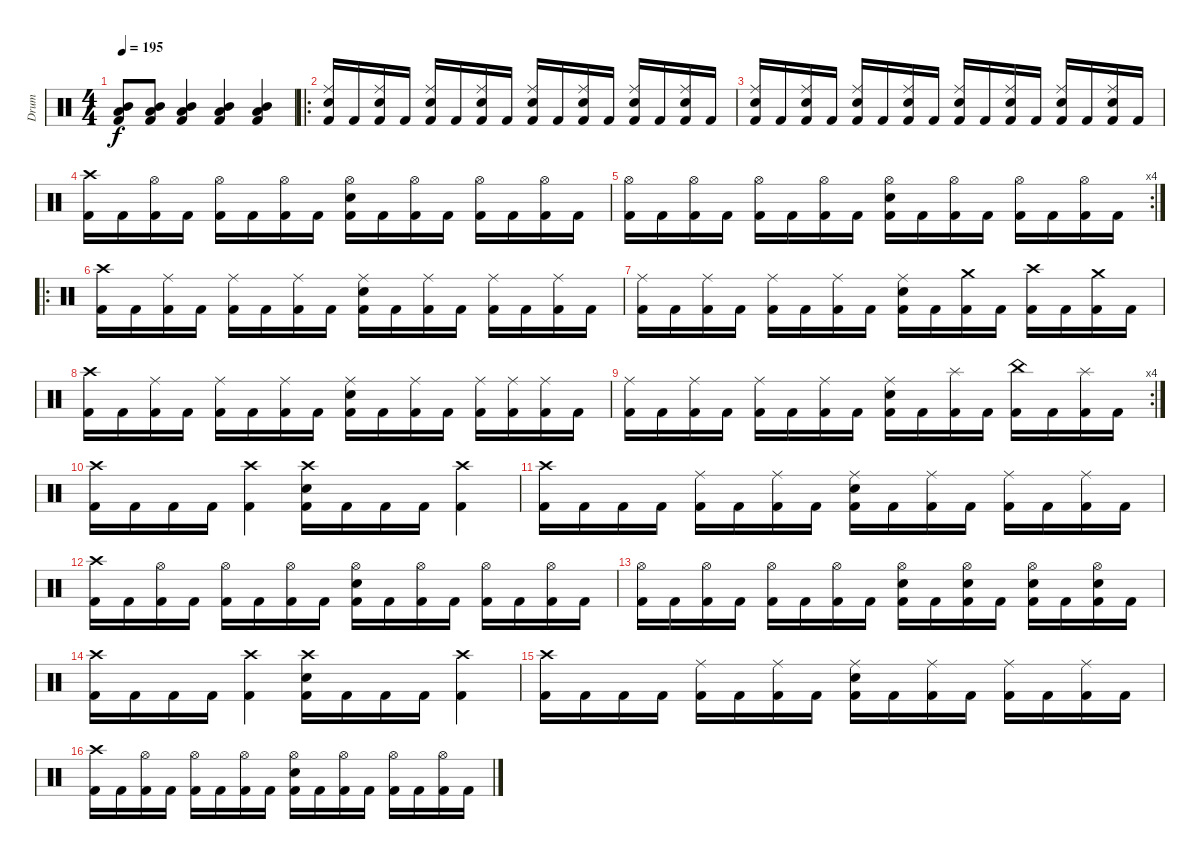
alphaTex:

\track ("Drum" "Drum") {instrument percussion}
\staff {score}
\articulation defaults
\ts (4 4)
\tempo 195
\clef neutral
\ks c
("Low Tom (hit)" "Mid Tom (hit)" "Kick (hit) 2").8{dy f} ("Low Tom (hit)" "Mid Tom (hit)" "Kick (hit) 2").8 ("Low Tom (hit)" "Mid Tom (hit)" "Kick (hit) 2").4 ("Low Tom (hit)" "Mid Tom (hit)" "Kick (hit) 2").4 ("Low Tom (hit)" "Mid Tom (hit)" "Kick (hit) 2").4 |
\ro
("Ride (middle)" "Electric Snare (hit)" "Kick (hit) 2").16 "Kick (hit) 2".16 ("Ride (middle)" "Electric Snare (hit)" "Kick (hit) 2").16 "Kick (hit) 2".16 ("Ride (middle)" "Electric Snare (hit)" "Kick (hit) 2").16 "Kick (hit) 2".16 ("Ride (middle)" "Electric Snare (hit)" "Kick (hit) 2").16 "Kick (hit) 2".16 ("Ride (middle)" "Electric Snare (hit)" "Kick (hit) 2").16 "Kick (hit) 2".16 ("Ride (middle)" "Electric Snare (hit)" "Kick (hit) 2").16 "Kick (hit) 2".16 ("Ride (middle)" "Electric Snare (hit)" "Kick (hit) 2").16 "Kick (hit) 2".16 ("Ride (middle)" "Electric Snare (hit)" "Kick (hit) 2").16 "Kick (hit) 2".16 |
("Ride (middle)" "Electric Snare (hit)" "Kick (hit) 2").16 "Kick (hit) 2".16 ("Ride (middle)" "Electric Snare (hit)" "Kick (hit) 2").16 "Kick (hit) 2".16 ("Ride (middle)" "Electric Snare (hit)" "Kick (hit) 2").16 "Kick (hit) 2".16 ("Ride (middle)" "Electric Snare (hit)" "Kick (hit) 2").16 "Kick (hit) 2".16 ("Ride (middle)" "Electric Snare (hit)" "Kick (hit) 2").16 "Kick (hit) 2".16 ("Ride (middle)" "Electric Snare (hit)" "Kick (hit) 2").16 "Kick (hit) 2".16 ("Ride (middle)" "Electric Snare (hit)" "Kick (hit) 2").16 "Kick (hit) 2".16 ("Ride (middle)" "Electric Snare (hit)" "Kick (hit) 2").16 "Kick (hit) 2".16 |
("Crash high (hit)" "Kick (hit) 2").16 "Kick (hit) 2".16 ("Hi-Hat (open)" "Kick (hit) 2").16 "Kick (hit) 2".16 ("Hi-Hat (open)" "Kick (hit) 2").16 "Kick (hit) 2".16 ("Hi-Hat (open)" "Kick (hit) 2").16 "Kick (hit) 2".16 ("Hi-Hat (open)" "Electric Snare (hit)" "Kick (hit) 2").16 "Kick (hit) 2".16 ("Hi-Hat (open)" "Kick (hit) 2").16 "Kick (hit) 2".16 ("Hi-Hat (open)" "Kick (hit) 2").16 "Kick (hit) 2".16 ("Hi-Hat (open)" "Kick (hit) 2").16 "Kick (hit) 2".16 |
\rc 4
("Hi-Hat (open)" "Kick (hit) 2").16 "Kick (hit) 2".16 ("Hi-Hat (open)" "Kick (hit) 2").16 "Kick (hit) 2".16 ("Hi-Hat (open)" "Kick (hit) 2").16 "Kick (hit) 2".16 ("Hi-Hat (open)" "Kick (hit) 2").16 "Kick (hit) 2".16 ("Hi-Hat (open)" "Electric Snare (hit)" "Kick (hit) 2").16 "Kick (hit) 2".16 ("Hi-Hat (open)" "Kick (hit) 2").16 "Kick (hit) 2".16 ("Hi-Hat (open)" "Kick (hit) 2").16 "Kick (hit) 2".16 ("Hi-Hat (open)" "Kick (hit) 2").16 "Kick (hit) 2".16 |
\ro
("Crash high (hit)" "Kick (hit) 2").16 "Kick (hit) 2".16 ("Ride (middle)" "Kick (hit) 2").16 "Kick (hit) 2".16 ("Ride (middle)" "Kick (hit) 2").16 "Kick (hit) 2".16 ("Ride (middle)" "Kick (hit) 2").16 "Kick (hit) 2".16 ("Ride (middle)" "Electric Snare (hit)" "Kick (hit) 2").16 "Kick (hit) 2".16 ("Ride (middle)" "Kick (hit) 2").16 "Kick (hit) 2".16 ("Ride (middle)" "Kick (hit) 2").16 "Kick (hit) 2".16 ("Ride (middle)" "Kick (hit) 2").16 "Kick (hit) 2".16 |
("Ride (middle)" "Kick (hit) 2").16 "Kick (hit) 2".16 ("Ride (middle)" "Kick (hit) 2").16 "Kick (hit) 2".16 ("Ride (middle)" "Kick (hit) 2").16 "Kick (hit) 2".16 ("Ride (middle)" "Kick (hit) 2").16 "Kick (hit) 2".16 ("Ride (middle)" "Electric Snare (hit)" "Kick (hit) 2").16 "Kick (hit) 2".16 ("Crash medium (hit)" "Kick (hit) 2").16 "Kick (hit) 2".16 ("Crash high (hit)" "Kick (hit) 2").16 "Kick (hit) 2".16 ("Crash medium (hit)" "Kick (hit) 2").16 "Kick (hit) 2".16 |
("Crash high (hit)" "Kick (hit) 2").16 "Kick (hit) 2".16 ("Ride (middle)" "Kick (hit) 2").16 "Kick (hit) 2".16 ("Ride (middle)" "Kick (hit) 2").16 "Kick (hit) 2".16 ("Ride (middle)" "Kick (hit) 2").16 "Kick (hit) 2".16 ("Ride (middle)" "Electric Snare (hit)" "Kick (hit) 2").16 "Kick (hit) 2".16 ("Ride (middle)" "Kick (hit) 2").16 "Kick (hit) 2".16 ("Ride (middle)" "Kick (hit) 2").16 ("Ride (middle)" "Kick (hit) 2").16 ("Ride (middle)" "Kick (hit) 2").16 "Kick (hit) 2".16 |
\rc 4
("Ride (middle)" "Kick (hit) 2").16 "Kick (hit) 2".16 ("Ride (middle)" "Kick (hit) 2").16 "Kick (hit) 2".16 ("Ride (middle)" "Kick (hit) 2").16 "Kick (hit) 2".16 ("Ride (middle)" "Kick (hit) 2").16 "Kick (hit) 2".16 ("Ride (middle)" "Electric Snare (hit)" "Kick (hit) 2").16 "Kick (hit) 2".16 ("Splash (hit)" "Kick (hit) 2").16 "Kick (hit) 2".16 ("China (hit)" "Kick (hit) 2").16 "Kick (hit) 2".16 ("Splash (hit)" "Kick (hit) 2").16 "Kick (hit) 2".16 |
("Crash high (hit)" "Kick (hit) 2").16 "Kick (hit) 2".16 "Kick (hit) 2".16 "Kick (hit) 2".16 ("Crash high (hit)" "Kick (hit) 2").4 ("Crash high (hit)" "Electric Snare (hit)" "Kick (hit) 2").16 "Kick (hit) 2".16 "Kick (hit) 2".16 "Kick (hit) 2".16 ("Crash high (hit)" "Kick (hit) 2").4 |
("Crash high (hit)" "Kick (hit) 2").16 "Kick (hit) 2".16 "Kick (hit) 2".16 "Kick (hit) 2".16 ("Ride (middle)" "Kick (hit) 2").16 "Kick (hit) 2".16 ("Ride (middle)" "Kick (hit) 2").16 "Kick (hit) 2".16 ("Ride (middle)" "Electric Snare (hit)" "Kick (hit) 2").16 "Kick (hit) 2".16 ("Ride (middle)" "Kick (hit) 2").16 "Kick (hit) 2".16 ("Ride (middle)" "Kick (hit) 2").16 "Kick (hit) 2".16 ("Ride (middle)" "Kick (hit) 2").16 "Kick (hit) 2".16 |
("Crash high (hit)" "Kick (hit) 2").16 "Kick (hit) 2".16 ("Hi-Hat (open)" "Kick (hit) 2").16 "Kick (hit) 2".16 ("Hi-Hat (open)" "Kick (hit) 2").16 "Kick (hit) 2".16 ("Hi-Hat (open)" "Kick (hit) 2").16 "Kick (hit) 2".16 ("Hi-Hat (open)" "Electric Snare (hit)" "Kick (hit) 2").16 "Kick (hit) 2".16 ("Hi-Hat (open)" "Kick (hit) 2").16 "Kick (hit) 2".16 ("Hi-Hat (open)" "Kick (hit) 2").16 "Kick (hit) 2".16 ("Hi-Hat (open)" "Kick (hit) 2").16 "Kick (hit) 2".16 |
("Hi-Hat (open)" "Kick (hit) 2").16 "Kick (hit) 2".16 ("Hi-Hat (open)" "Kick (hit) 2").16 "Kick (hit) 2".16 ("Hi-Hat (open)" "Kick (hit) 2").16 "Kick (hit) 2".16 ("Hi-Hat (open)" "Kick (hit) 2").16 "Kick (hit) 2".16 ("Hi-Hat (open)" "Electric Snare (hit)" "Kick (hit) 2").16 "Kick (hit) 2".16 ("Hi-Hat (open)" "Electric Snare (hit)" "Kick (hit) 2").16 "Kick (hit) 2".16 ("Hi-Hat (open)" "Electric Snare (hit)" "Kick (hit) 2").16 "Kick (hit) 2".16 ("Hi-Hat (open)" "Electric Snare (hit)" "Kick (hit) 2").16 "Kick (hit) 2".16 |
("Crash high (hit)" "Kick (hit) 2").16 "Kick (hit) 2".16 "Kick (hit) 2".16 "Kick (hit) 2".16 ("Crash high (hit)" "Kick (hit) 2").4 ("Crash high (hit)" "Electric Snare (hit)" "Kick (hit) 2").16 "Kick (hit) 2".16 "Kick (hit) 2".16 "Kick (hit) 2".16 ("Crash high (hit)" "Kick (hit) 2").4 |
("Crash high (hit)" "Kick (hit) 2").16 "Kick (hit) 2".16 "Kick (hit) 2".16 "Kick (hit) 2".16 ("Ride (middle)" "Kick (hit) 2").16 "Kick (hit) 2".16 ("Ride (middle)" "Kick (hit) 2").16 "Kick (hit) 2".16 ("Ride (middle)" "Electric Snare (hit)" "Kick (hit) 2").16 "Kick (hit) 2".16 ("Ride (middle)" "Kick (hit) 2").16 "Kick (hit) 2".16 ("Ride (middle)" "Kick (hit) 2").16 "Kick (hit) 2".16 ("Ride (middle)" "Kick (hit) 2").16 "Kick (hit) 2".16 |
("Crash high (hit)" "Kick (hit) 2").16 "Kick (hit) 2".16 ("Hi-Hat (open)" "Kick (hit) 2").16 "Kick (hit) 2".16 ("Hi-Hat (open)" "Kick (hit) 2").16 "Kick (hit) 2".16 ("Hi-Hat (open)" "Kick (hit) 2").16 "Kick (hit) 2".16 ("Hi-Hat (open)" "Electric Snare (hit)" "Kick (hit) 2").16 "Kick (hit) 2".16 ("Hi-Hat (open)" "Kick (hit) 2").16 "Kick (hit) 2".16 ("Hi-Hat (open)" "Kick (hit) 2").16 "Kick (hit) 2".16 ("Hi-Hat (open)" "Kick (hit) 2").16 "Kick (hit) 2".16
